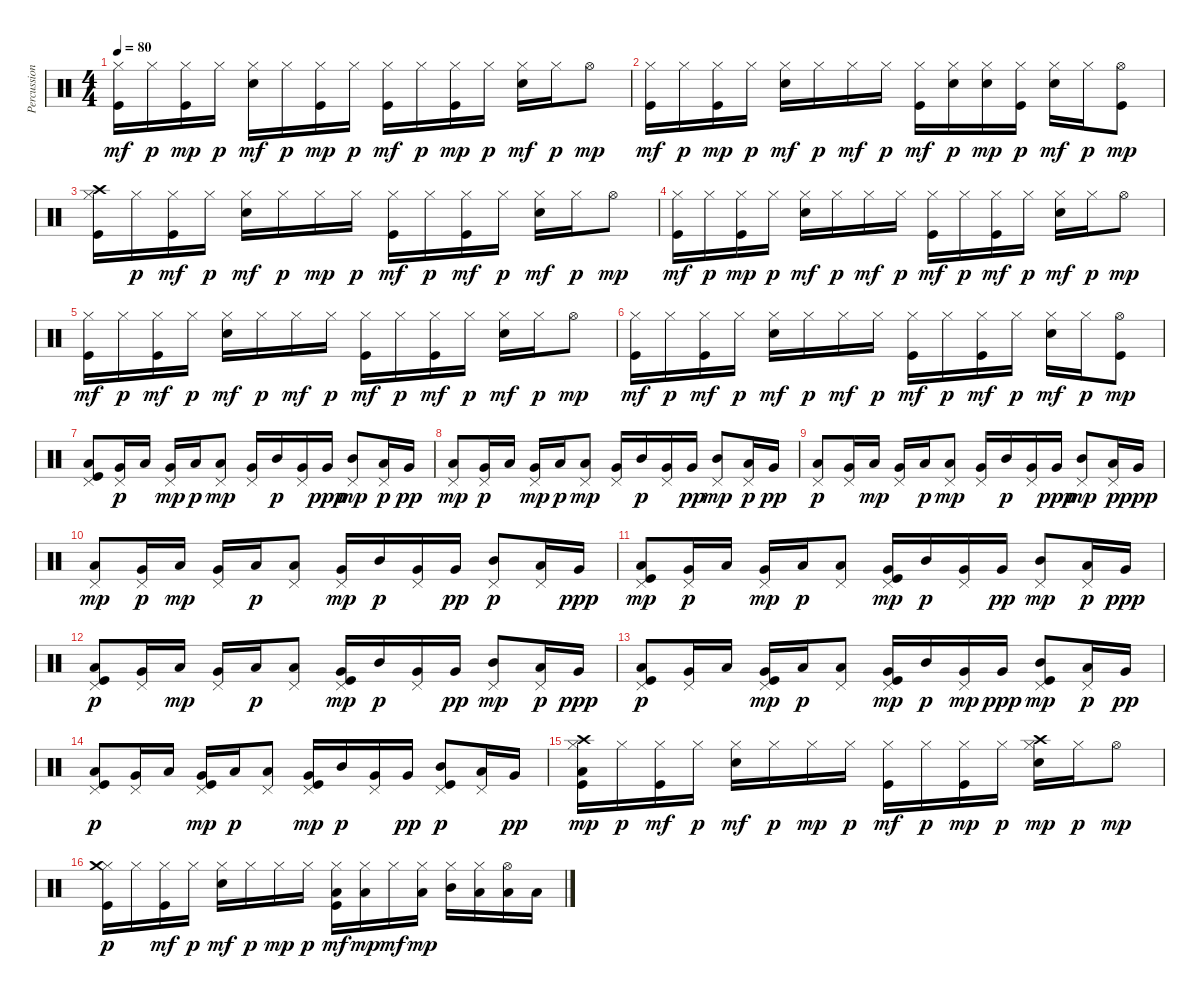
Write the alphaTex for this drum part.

\track ("Percussioni" "Percussion") {instrument percussion}
\staff {score}
\articulation defaults
\ts (4 4)
\tempo 80
\clef neutral
\ks c
("Kick (hit)" "Hi-Hat (closed)").16{dy mf} "Hi-Hat (closed)".16{dy p} ("Kick (hit)" "Hi-Hat (closed)").16{dy mp} "Hi-Hat (closed)".16{dy p} ("Snare (hit) 2" "Hi-Hat (closed)").16{dy mf} "Hi-Hat (closed)".16{dy p} ("Kick (hit)" "Hi-Hat (closed)").16{dy mp} "Hi-Hat (closed)".16{dy p} ("Kick (hit)" "Hi-Hat (closed)").16{dy mf} "Hi-Hat (closed)".16{dy p} ("Kick (hit)" "Hi-Hat (closed)").16{dy mp} "Hi-Hat (closed)".16{dy p} ("Snare (hit) 2" "Hi-Hat (closed)").16{dy mf} "Hi-Hat (closed)".16{dy p} "Hi-Hat (open)".8{dy mp} |
("Kick (hit)" "Hi-Hat (closed)").16{dy mf} "Hi-Hat (closed)".16{dy p} ("Kick (hit)" "Hi-Hat (closed)").16{dy mp} "Hi-Hat (closed)".16{dy p} ("Snare (hit) 2" "Hi-Hat (closed)").16{dy mf} "Hi-Hat (closed)".16{dy p} "Hi-Hat (closed)".16{dy mf} "Hi-Hat (closed)".16{dy p} ("Kick (hit)" "Hi-Hat (closed)").16{dy mf} ("Snare (hit) 2" "Hi-Hat (closed)").16{dy p} ("Snare (hit) 2" "Hi-Hat (closed)").16{dy mp} ("Kick (hit)" "Hi-Hat (closed)").16{dy p} ("Snare (hit) 2" "Hi-Hat (closed)").16{dy mf} "Hi-Hat (closed)".16{dy p} ("Kick (hit)" "Hi-Hat (open)").8{dy mp} |
("Kick (hit)" "Hi-Hat (closed)" "Crash high (hit)").16 "Hi-Hat (closed)".16{dy p} ("Kick (hit)" "Hi-Hat (closed)").16{dy mf} "Hi-Hat (closed)".16{dy p} ("Snare (hit) 2" "Hi-Hat (closed)").16{dy mf} "Hi-Hat (closed)".16{dy p} "Hi-Hat (closed)".16{dy mp} "Hi-Hat (closed)".16{dy p} ("Kick (hit)" "Hi-Hat (closed)").16{dy mf} "Hi-Hat (closed)".16{dy p} ("Kick (hit)" "Hi-Hat (closed)").16{dy mf} "Hi-Hat (closed)".16{dy p} ("Snare (hit) 2" "Hi-Hat (closed)").16{dy mf} "Hi-Hat (closed)".16{dy p} "Hi-Hat (open)".8{dy mp} |
("Kick (hit)" "Hi-Hat (closed)").16{dy mf} "Hi-Hat (closed)".16{dy p} ("Kick (hit)" "Hi-Hat (closed)").16{dy mp} "Hi-Hat (closed)".16{dy p} ("Snare (hit) 2" "Hi-Hat (closed)").16{dy mf} "Hi-Hat (closed)".16{dy p} "Hi-Hat (closed)".16{dy mf} "Hi-Hat (closed)".16{dy p} ("Kick (hit)" "Hi-Hat (closed)").16{dy mf} "Hi-Hat (closed)".16{dy p} ("Kick (hit)" "Hi-Hat (closed)").16{dy mf} "Hi-Hat (closed)".16{dy p} ("Snare (hit) 2" "Hi-Hat (closed)").16{dy mf} "Hi-Hat (closed)".16{dy p} "Hi-Hat (open)".8{dy mp} |
("Kick (hit)" "Hi-Hat (closed)").16{dy mf} "Hi-Hat (closed)".16{dy p} ("Kick (hit)" "Hi-Hat (closed)").16{dy mf} "Hi-Hat (closed)".16{dy p} ("Snare (hit) 2" "Hi-Hat (closed)").16{dy mf} "Hi-Hat (closed)".16{dy p} "Hi-Hat (closed)".16{dy mf} "Hi-Hat (closed)".16{dy p} ("Kick (hit)" "Hi-Hat (closed)").16{dy mf} "Hi-Hat (closed)".16{dy p} ("Kick (hit)" "Hi-Hat (closed)").16{dy mf} "Hi-Hat (closed)".16{dy p} ("Snare (hit) 2" "Hi-Hat (closed)").16{dy mf} "Hi-Hat (closed)".16{dy p} "Hi-Hat (open)".8{dy mp} |
("Kick (hit)" "Hi-Hat (closed)").16{dy mf} "Hi-Hat (closed)".16{dy p} ("Kick (hit)" "Hi-Hat (closed)").16{dy mf} "Hi-Hat (closed)".16{dy p} ("Snare (hit) 2" "Hi-Hat (closed)").16{dy mf} "Hi-Hat (closed)".16{dy p} "Hi-Hat (closed)".16{dy mf} "Hi-Hat (closed)".16{dy p} ("Kick (hit)" "Hi-Hat (closed)").16{dy mf} "Hi-Hat (closed)".16{dy p} ("Kick (hit)" "Hi-Hat (closed)").16{dy mf} "Hi-Hat (closed)".16{dy p} ("Snare (hit) 2" "Hi-Hat (closed)").16{dy mf} "Hi-Hat (closed)".16{dy p} ("Kick (hit)" "Hi-Hat (open)").8{dy mp} |
("Kick (hit)" "Pedal Hi-Hat (hit)" "Low Tom (hit)").8 ("Very Low Tom (hit)" "Pedal Hi-Hat (hit)").16{dy p} "Low Tom (hit)".16 ("Very Low Tom (hit)" "Pedal Hi-Hat (hit)").16{dy mp} "Low Tom (hit)".16{dy p} ("Pedal Hi-Hat (hit)" "Low Tom (hit)").8{dy mp} ("Very Low Tom (hit)" "Pedal Hi-Hat (hit)").16 "Mid Tom (hit)".16{dy p} ("Very Low Tom (hit)" "Pedal Hi-Hat (hit)").16 "Very Low Tom (hit)".16{dy ppp} ("Pedal Hi-Hat (hit)" "Mid Tom (hit)").8{dy mp} ("Pedal Hi-Hat (hit)" "Low Tom (hit)").16{dy p} "Very Low Tom (hit)".16{dy pp} |
("Pedal Hi-Hat (hit)" "Low Tom (hit)").8{dy mp} ("Very Low Tom (hit)" "Pedal Hi-Hat (hit)").16{dy p} "Low Tom (hit)".16 ("Very Low Tom (hit)" "Pedal Hi-Hat (hit)").16{dy mp} "Low Tom (hit)".16{dy p} ("Pedal Hi-Hat (hit)" "Low Tom (hit)").8{dy mp} ("Very Low Tom (hit)" "Pedal Hi-Hat (hit)").16 "Mid Tom (hit)".16{dy p} ("Very Low Tom (hit)" "Pedal Hi-Hat (hit)").16 "Very Low Tom (hit)".16{dy pp} ("Pedal Hi-Hat (hit)" "Mid Tom (hit)").8{dy mp} ("Pedal Hi-Hat (hit)" "Low Tom (hit)").16{dy p} "Very Low Tom (hit)".16{dy pp} |
("Pedal Hi-Hat (hit)" "Low Tom (hit)").8{dy p} ("Very Low Tom (hit)" "Pedal Hi-Hat (hit)").16 "Low Tom (hit)".16{dy mp} ("Very Low Tom (hit)" "Pedal Hi-Hat (hit)").16 "Low Tom (hit)".16{dy p} ("Pedal Hi-Hat (hit)" "Low Tom (hit)").8{dy mp} ("Very Low Tom (hit)" "Pedal Hi-Hat (hit)").16 "Mid Tom (hit)".16{dy p} ("Very Low Tom (hit)" "Pedal Hi-Hat (hit)").16 "Very Low Tom (hit)".16{dy ppp} ("Pedal Hi-Hat (hit)" "Mid Tom (hit)").8{dy mp} ("Pedal Hi-Hat (hit)" "Low Tom (hit)").16{dy p} "Very Low Tom (hit)".16{dy ppp} |
("Pedal Hi-Hat (hit)" "Low Tom (hit)").8{dy mp} ("Very Low Tom (hit)" "Pedal Hi-Hat (hit)").16{dy p} "Low Tom (hit)".16{dy mp} ("Very Low Tom (hit)" "Pedal Hi-Hat (hit)").16 "Low Tom (hit)".16{dy p} ("Pedal Hi-Hat (hit)" "Low Tom (hit)").8 ("Very Low Tom (hit)" "Pedal Hi-Hat (hit)").16{dy mp} "Mid Tom (hit)".16{dy p} ("Very Low Tom (hit)" "Pedal Hi-Hat (hit)").16 "Very Low Tom (hit)".16{dy pp} ("Pedal Hi-Hat (hit)" "Mid Tom (hit)").8{dy p} ("Pedal Hi-Hat (hit)" "Low Tom (hit)").16 "Very Low Tom (hit)".16{dy ppp} |
("Kick (hit)" "Pedal Hi-Hat (hit)" "Low Tom (hit)").8{dy mp} ("Very Low Tom (hit)" "Pedal Hi-Hat (hit)").16{dy p} "Low Tom (hit)".16 ("Very Low Tom (hit)" "Pedal Hi-Hat (hit)").16{dy mp} "Low Tom (hit)".16{dy p} ("Pedal Hi-Hat (hit)" "Low Tom (hit)").8 ("Kick (hit)" "Very Low Tom (hit)" "Pedal Hi-Hat (hit)").16{dy mp} "Mid Tom (hit)".16{dy p} ("Very Low Tom (hit)" "Pedal Hi-Hat (hit)").16 "Very Low Tom (hit)".16{dy pp} ("Pedal Hi-Hat (hit)" "Mid Tom (hit)").8{dy mp} ("Pedal Hi-Hat (hit)" "Low Tom (hit)").16{dy p} "Very Low Tom (hit)".16{dy ppp} |
("Kick (hit)" "Pedal Hi-Hat (hit)" "Low Tom (hit)").8{dy p} ("Very Low Tom (hit)" "Pedal Hi-Hat (hit)").16 "Low Tom (hit)".16{dy mp} ("Very Low Tom (hit)" "Pedal Hi-Hat (hit)").16 "Low Tom (hit)".16{dy p} ("Pedal Hi-Hat (hit)" "Low Tom (hit)").8 ("Kick (hit)" "Very Low Tom (hit)" "Pedal Hi-Hat (hit)").16{dy mp} "Mid Tom (hit)".16{dy p} ("Very Low Tom (hit)" "Pedal Hi-Hat (hit)").16 "Very Low Tom (hit)".16{dy pp} ("Pedal Hi-Hat (hit)" "Mid Tom (hit)").8{dy mp} ("Pedal Hi-Hat (hit)" "Low Tom (hit)").16{dy p} "Very Low Tom (hit)".16{dy ppp} |
("Kick (hit)" "Pedal Hi-Hat (hit)" "Low Tom (hit)").8{dy p} ("Very Low Tom (hit)" "Pedal Hi-Hat (hit)").16 "Low Tom (hit)".16 ("Kick (hit)" "Very Low Tom (hit)" "Pedal Hi-Hat (hit)").16{dy mp} "Low Tom (hit)".16{dy p} ("Pedal Hi-Hat (hit)" "Low Tom (hit)").8 ("Kick (hit)" "Very Low Tom (hit)" "Pedal Hi-Hat (hit)").16{dy mp} "Mid Tom (hit)".16{dy p} ("Very Low Tom (hit)" "Pedal Hi-Hat (hit)").16{dy mp} "Very Low Tom (hit)".16{dy ppp} ("Kick (hit)" "Pedal Hi-Hat (hit)" "Mid Tom (hit)").8{dy mp} ("Pedal Hi-Hat (hit)" "Low Tom (hit)").16{dy p} "Very Low Tom (hit)".16{dy pp} |
("Kick (hit)" "Pedal Hi-Hat (hit)" "Low Tom (hit)").8{dy p} ("Very Low Tom (hit)" "Pedal Hi-Hat (hit)").16 "Low Tom (hit)".16 ("Kick (hit)" "Very Low Tom (hit)" "Pedal Hi-Hat (hit)").16{dy mp} "Low Tom (hit)".16{dy p} ("Pedal Hi-Hat (hit)" "Low Tom (hit)").8 ("Kick (hit)" "Very Low Tom (hit)" "Pedal Hi-Hat (hit)").16{dy mp} "Mid Tom (hit)".16{dy p} ("Very Low Tom (hit)" "Pedal Hi-Hat (hit)").16 "Very Low Tom (hit)".16{dy pp} ("Kick (hit)" "Pedal Hi-Hat (hit)" "Mid Tom (hit)").8{dy p} ("Pedal Hi-Hat (hit)" "Low Tom (hit)").16 "Very Low Tom (hit)".16{dy pp} |
("Kick (hit)" "Hi-Hat (closed)" "Low Tom (hit)" "Crash high (hit)").16{dy mp} "Hi-Hat (closed)".16{dy p} ("Kick (hit)" "Hi-Hat (closed)").16{dy mf} "Hi-Hat (closed)".16{dy p} ("Snare (hit) 2" "Hi-Hat (closed)").16{dy mf} "Hi-Hat (closed)".16{dy p} "Hi-Hat (closed)".16{dy mp} "Hi-Hat (closed)".16{dy p} ("Kick (hit)" "Hi-Hat (closed)").16{dy mf} "Hi-Hat (closed)".16{dy p} ("Kick (hit)" "Hi-Hat (closed)").16{dy mp} "Hi-Hat (closed)".16{dy p} ("Snare (hit) 2" "Hi-Hat (closed)" "Crash high (hit)").16{dy mp} "Hi-Hat (closed)".16{dy p} "Hi-Hat (open)".8{dy mp} |
("Kick (hit)" "Hi-Hat (closed)" "Crash medium (hit)").16{dy p} "Hi-Hat (closed)".16 ("Kick (hit)" "Hi-Hat (closed)").16{dy mf} "Hi-Hat (closed)".16{dy p} ("Snare (hit) 2" "Hi-Hat (closed)").16{dy mf} "Hi-Hat (closed)".16{dy p} "Hi-Hat (closed)".16{dy mp} "Hi-Hat (closed)".16{dy p} ("Kick (hit)" "Hi-Hat (closed)" "Low Tom (hit)").16{dy mf} ("Hi-Hat (closed)" "Low Tom (hit)").16{dy mp} "Hi-Hat (closed)".16{dy mf} ("Hi-Hat (closed)" "Low Tom (hit)").16{dy mp} ("Hi-Hat (closed)" "Mid Tom (hit)").16 ("Hi-Hat (closed)" "Low Tom (hit)").16 ("Low Tom (hit)" "Hi-Hat (open)").16 "Low Tom (hit)".16
